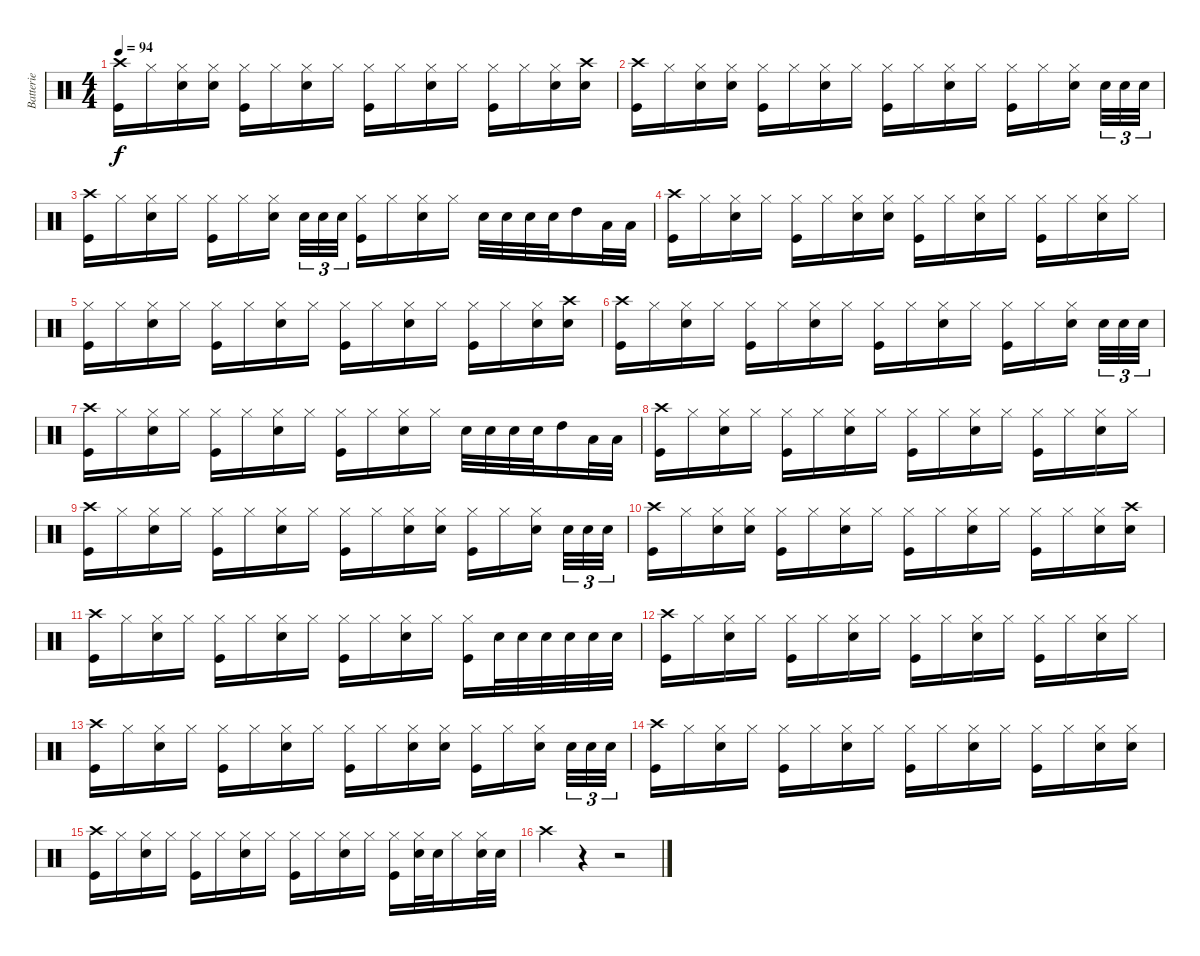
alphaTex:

\track ("Batterie" "Batterie") {instrument percussion}
\staff {score}
\articulation defaults
\ts (4 4)
\tempo 94
\clef neutral
\ks c
("Crash high (hit)" "Kick (hit)").16{dy f} "Hi-Hat (closed)".16 ("Hi-Hat (closed)" "Snare (hit) 2").16 ("Snare (hit) 2" "Hi-Hat (closed)").16 ("Hi-Hat (closed)" "Kick (hit)").16 "Hi-Hat (closed)".16 ("Hi-Hat (closed)" "Snare (hit) 2").16 "Hi-Hat (closed)".16 ("Hi-Hat (closed)" "Kick (hit)").16 "Hi-Hat (closed)".16 ("Hi-Hat (closed)" "Snare (hit) 2").16 "Hi-Hat (closed)".16 ("Hi-Hat (closed)" "Kick (hit)").16 "Hi-Hat (closed)".16 ("Hi-Hat (closed)" "Snare (hit) 2").16 ("Crash high (hit)" "Snare (hit) 2").16 |
("Crash high (hit)" "Kick (hit)").16 "Hi-Hat (closed)".16 ("Hi-Hat (closed)" "Snare (hit) 2").16 ("Snare (hit) 2" "Hi-Hat (closed)").16 ("Hi-Hat (closed)" "Kick (hit)").16 "Hi-Hat (closed)".16 ("Hi-Hat (closed)" "Snare (hit) 2").16 "Hi-Hat (closed)".16 ("Hi-Hat (closed)" "Kick (hit)").16 "Hi-Hat (closed)".16 ("Hi-Hat (closed)" "Snare (hit) 2").16 "Hi-Hat (closed)".16 ("Hi-Hat (closed)" "Kick (hit)").16 "Hi-Hat (closed)".16 ("Hi-Hat (closed)" "Snare (hit) 2").16 "Snare (hit) 2".32{tu (3 2)} "Snare (hit) 2".32{tu (3 2)} "Snare (hit) 2".32{tu (3 2)} |
("Crash high (hit)" "Kick (hit)").16 "Hi-Hat (closed)".16 ("Hi-Hat (closed)" "Snare (hit) 2").16 "Hi-Hat (closed)".16 ("Hi-Hat (closed)" "Kick (hit)").16 "Hi-Hat (closed)".16 ("Hi-Hat (closed)" "Snare (hit) 2").16 "Snare (hit) 2".32{tu (3 2)} "Snare (hit) 2".32{tu (3 2)} "Snare (hit) 2".32{tu (3 2)} ("Hi-Hat (closed)" "Kick (hit)").16 "Hi-Hat (closed)".16 ("Hi-Hat (closed)" "Snare (hit) 2").16 "Hi-Hat (closed)".16 "Snare (hit) 2".32 "Snare (hit) 2".32 "Snare (hit) 2".32 "Snare (hit) 2".32 "High Tom (hit)".16 "Low Floor Tom (hit)".32 "Low Floor Tom (hit)".32 |
("Crash high (hit)" "Kick (hit)").16 "Hi-Hat (closed)".16 ("Hi-Hat (closed)" "Snare (hit) 2").16 "Hi-Hat (closed)".16 ("Hi-Hat (closed)" "Kick (hit)").16 "Hi-Hat (closed)".16 ("Hi-Hat (closed)" "Snare (hit) 2").16 ("Hi-Hat (closed)" "Snare (hit) 2").16 ("Hi-Hat (closed)" "Kick (hit)").16 "Hi-Hat (closed)".16 ("Hi-Hat (closed)" "Snare (hit) 2").16 "Hi-Hat (closed)".16 ("Hi-Hat (closed)" "Kick (hit)").16 "Hi-Hat (closed)".16 ("Hi-Hat (closed)" "Snare (hit) 2").16 "Hi-Hat (closed)".16 |
("Hi-Hat (closed)" "Kick (hit)").16 "Hi-Hat (closed)".16 ("Hi-Hat (closed)" "Snare (hit) 2").16 "Hi-Hat (closed)".16 ("Hi-Hat (closed)" "Kick (hit)").16 "Hi-Hat (closed)".16 ("Hi-Hat (closed)" "Snare (hit) 2").16 "Hi-Hat (closed)".16 ("Hi-Hat (closed)" "Kick (hit)").16 "Hi-Hat (closed)".16 ("Hi-Hat (closed)" "Snare (hit) 2").16 "Hi-Hat (closed)".16 ("Hi-Hat (closed)" "Kick (hit)").16 "Hi-Hat (closed)".16 ("Hi-Hat (closed)" "Snare (hit) 2").16 ("Crash high (hit)" "Snare (hit) 2").16 |
("Crash high (hit)" "Kick (hit)").16 "Hi-Hat (closed)".16 ("Hi-Hat (closed)" "Snare (hit) 2").16 "Hi-Hat (closed)".16 ("Hi-Hat (closed)" "Kick (hit)").16 "Hi-Hat (closed)".16 ("Hi-Hat (closed)" "Snare (hit) 2").16 "Hi-Hat (closed)".16 ("Hi-Hat (closed)" "Kick (hit)").16 "Hi-Hat (closed)".16 ("Hi-Hat (closed)" "Snare (hit) 2").16 "Hi-Hat (closed)".16 ("Hi-Hat (closed)" "Kick (hit)").16 "Hi-Hat (closed)".16 ("Hi-Hat (closed)" "Snare (hit) 2").16 "Snare (hit) 2".32{tu (3 2)} "Snare (hit) 2".32{tu (3 2)} "Snare (hit) 2".32{tu (3 2)} |
("Crash high (hit)" "Kick (hit)").16 "Hi-Hat (closed)".16 ("Hi-Hat (closed)" "Snare (hit) 2").16 "Hi-Hat (closed)".16 ("Hi-Hat (closed)" "Kick (hit)").16 "Hi-Hat (closed)".16 ("Hi-Hat (closed)" "Snare (hit) 2").16 "Hi-Hat (closed)".16 ("Hi-Hat (closed)" "Kick (hit)").16 "Hi-Hat (closed)".16 ("Hi-Hat (closed)" "Snare (hit) 2").16 "Hi-Hat (closed)".16 "Snare (hit) 2".32 "Snare (hit) 2".32 "Snare (hit) 2".32 "Snare (hit) 2".32 "High Tom (hit)".16 "Low Floor Tom (hit)".32 "Low Floor Tom (hit)".32 |
("Crash high (hit)" "Kick (hit)").16 "Hi-Hat (closed)".16 ("Hi-Hat (closed)" "Snare (hit) 2").16 "Hi-Hat (closed)".16 ("Hi-Hat (closed)" "Kick (hit)").16 "Hi-Hat (closed)".16 ("Hi-Hat (closed)" "Snare (hit) 2").16 "Hi-Hat (closed)".16 ("Hi-Hat (closed)" "Kick (hit)").16 "Hi-Hat (closed)".16 ("Hi-Hat (closed)" "Snare (hit) 2").16 "Hi-Hat (closed)".16 ("Hi-Hat (closed)" "Kick (hit)").16 "Hi-Hat (closed)".16 ("Hi-Hat (closed)" "Snare (hit) 2").16 "Hi-Hat (closed)".16 |
("Crash high (hit)" "Kick (hit)").16 "Hi-Hat (closed)".16 ("Hi-Hat (closed)" "Snare (hit) 2").16 "Hi-Hat (closed)".16 ("Hi-Hat (closed)" "Kick (hit)").16 "Hi-Hat (closed)".16 ("Hi-Hat (closed)" "Snare (hit) 2").16 "Hi-Hat (closed)".16 ("Hi-Hat (closed)" "Kick (hit)").16 "Hi-Hat (closed)".16 ("Hi-Hat (closed)" "Snare (hit) 2").16 ("Hi-Hat (closed)" "Snare (hit) 2").16 ("Hi-Hat (closed)" "Kick (hit)").16 "Hi-Hat (closed)".16 ("Hi-Hat (closed)" "Snare (hit) 2").16 "Snare (hit) 2".32{tu (3 2)} "Snare (hit) 2".32{tu (3 2)} "Snare (hit) 2".32{tu (3 2)} |
("Crash high (hit)" "Kick (hit)").16 "Hi-Hat (closed)".16 ("Hi-Hat (closed)" "Snare (hit) 2").16 ("Snare (hit) 2" "Hi-Hat (closed)").16 ("Hi-Hat (closed)" "Kick (hit)").16 "Hi-Hat (closed)".16 ("Hi-Hat (closed)" "Snare (hit) 2").16 "Hi-Hat (closed)".16 ("Hi-Hat (closed)" "Kick (hit)").16 "Hi-Hat (closed)".16 ("Hi-Hat (closed)" "Snare (hit) 2").16 "Hi-Hat (closed)".16 ("Hi-Hat (closed)" "Kick (hit)").16 "Hi-Hat (closed)".16 ("Hi-Hat (closed)" "Snare (hit) 2").16 ("Crash high (hit)" "Snare (hit) 2").16 |
("Crash high (hit)" "Kick (hit)").16 "Hi-Hat (closed)".16 ("Hi-Hat (closed)" "Snare (hit) 2").16 "Hi-Hat (closed)".16 ("Hi-Hat (closed)" "Kick (hit)").16 "Hi-Hat (closed)".16 ("Hi-Hat (closed)" "Snare (hit) 2").16 "Hi-Hat (closed)".16 ("Hi-Hat (closed)" "Kick (hit)").16 "Hi-Hat (closed)".16 ("Hi-Hat (closed)" "Snare (hit) 2").16 "Hi-Hat (closed)".16 ("Hi-Hat (closed)" "Kick (hit)").16 "Snare (hit) 2".32 "Snare (hit) 2".32 "Snare (hit) 2".32 "Snare (hit) 2".32 "Snare (hit) 2".32 "Snare (hit) 2".32 |
("Crash high (hit)" "Kick (hit)").16 "Hi-Hat (closed)".16 ("Hi-Hat (closed)" "Snare (hit) 2").16 "Hi-Hat (closed)".16 ("Hi-Hat (closed)" "Kick (hit)").16 "Hi-Hat (closed)".16 ("Hi-Hat (closed)" "Snare (hit) 2").16 "Hi-Hat (closed)".16 ("Hi-Hat (closed)" "Kick (hit)").16 "Hi-Hat (closed)".16 ("Hi-Hat (closed)" "Snare (hit) 2").16 "Hi-Hat (closed)".16 ("Hi-Hat (closed)" "Kick (hit)").16 "Hi-Hat (closed)".16 ("Hi-Hat (closed)" "Snare (hit) 2").16 "Hi-Hat (closed)".16 |
("Crash high (hit)" "Kick (hit)").16 "Hi-Hat (closed)".16 ("Hi-Hat (closed)" "Snare (hit) 2").16 "Hi-Hat (closed)".16 ("Hi-Hat (closed)" "Kick (hit)").16 "Hi-Hat (closed)".16 ("Hi-Hat (closed)" "Snare (hit) 2").16 "Hi-Hat (closed)".16 ("Hi-Hat (closed)" "Kick (hit)").16 "Hi-Hat (closed)".16 ("Hi-Hat (closed)" "Snare (hit) 2").16 ("Hi-Hat (closed)" "Snare (hit) 2").16 ("Hi-Hat (closed)" "Kick (hit)").16 "Hi-Hat (closed)".16 ("Hi-Hat (closed)" "Snare (hit) 2").16 "Snare (hit) 2".32{tu (3 2)} "Snare (hit) 2".32{tu (3 2)} "Snare (hit) 2".32{tu (3 2)} |
("Crash high (hit)" "Kick (hit)").16 "Hi-Hat (closed)".16 ("Hi-Hat (closed)" "Snare (hit) 2").16 "Hi-Hat (closed)".16 ("Hi-Hat (closed)" "Kick (hit)").16 "Hi-Hat (closed)".16 ("Hi-Hat (closed)" "Snare (hit) 2").16 "Hi-Hat (closed)".16 ("Hi-Hat (closed)" "Kick (hit)").16 "Hi-Hat (closed)".16 ("Hi-Hat (closed)" "Snare (hit) 2").16 "Hi-Hat (closed)".16 ("Hi-Hat (closed)" "Kick (hit)").16 "Hi-Hat (closed)".16 ("Hi-Hat (closed)" "Snare (hit) 2").16 ("Hi-Hat (closed)" "Snare (hit) 2").16 |
("Crash high (hit)" "Kick (hit)").16 "Hi-Hat (closed)".16 ("Hi-Hat (closed)" "Snare (hit) 2").16 "Hi-Hat (closed)".16 ("Hi-Hat (closed)" "Kick (hit)").16 "Hi-Hat (closed)".16 ("Hi-Hat (closed)" "Snare (hit) 2").16 "Hi-Hat (closed)".16 ("Hi-Hat (closed)" "Kick (hit)").16 "Hi-Hat (closed)".16 ("Hi-Hat (closed)" "Snare (hit) 2").16 "Hi-Hat (closed)".16 ("Hi-Hat (closed)" "Kick (hit)").16 ("Hi-Hat (closed)" "Snare (hit) 2").32 "Snare (hit) 2".32 "Hi-Hat (closed)".16 ("Hi-Hat (closed)" "Snare (hit) 2").32 "Snare (hit) 2".32 |
"Crash high (hit)".4 r.4 r.2
